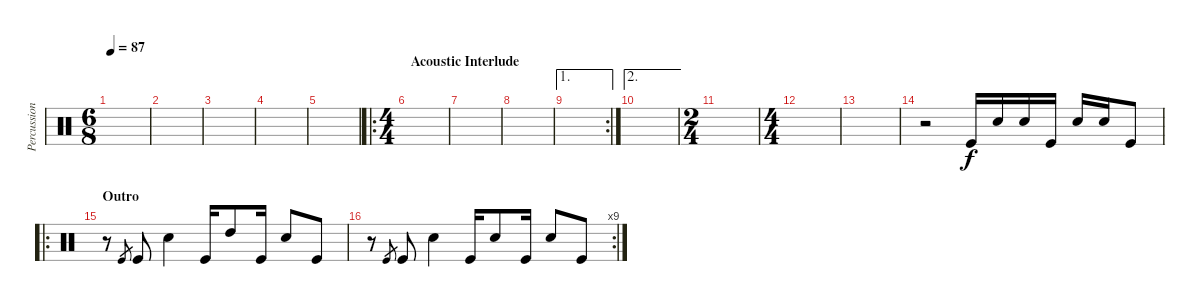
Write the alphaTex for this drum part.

\track ("Percussion" "Percussion") {instrument percussion}
\staff {score}
\articulation defaults
\ts (6 8)
\tempo 87
\clef neutral
\ks c
|
|
|
|
|
\ro
\ts (4 4)
\section ("" "Acoustic Interlude")
|
|
|
\ae 1
\rc 2
|
\ae 2
|
\ts (2 4)
|
\ts (4 4)
|
|
r.2 "Kick (hit)".16 "Electric Snare (hit)".16 "Electric Snare (hit)".16 "Kick (hit)".16 "Electric Snare (hit)".16 "Electric Snare (hit)".16 "Kick (hit)".8 |
\ro
\section ("" "Outro")
r.8 "Kick (hit)".8{gr} "Kick (hit)".8 "Electric Snare (hit)".4 "Kick (hit)".16 "High Tom (hit)".8 "Kick (hit)".16 "Electric Snare (hit)".8 "Kick (hit)".8 |
\rc 9
r.8 "Kick (hit)".8{gr} "Kick (hit)".8 "Electric Snare (hit)".4 "Kick (hit)".16 "Electric Snare (hit)".8 "Kick (hit)".16 "Electric Snare (hit)".8 "Kick (hit)".8
